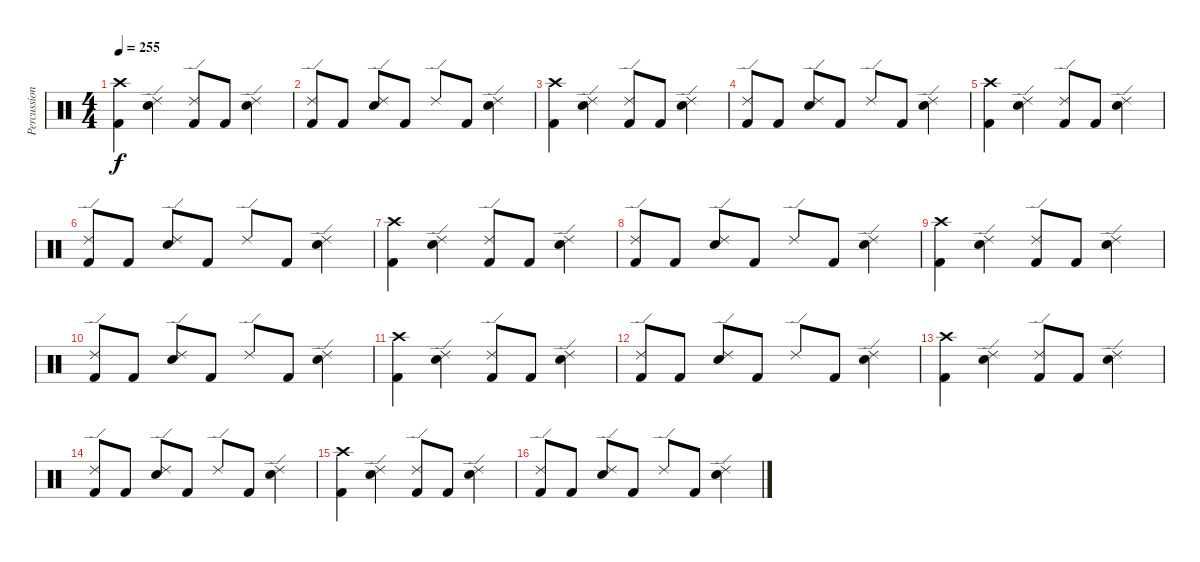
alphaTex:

\track ("Percussion" "Percussion") {instrument percussion}
\staff {score}
\articulation defaults
\ts (4 4)
\tempo 255
\clef neutral
\ks c
("Crash high (hit)" "Kick (hit) 2").4{dy f} ("Ride (edge) 2" "Electric Snare (hit)").4 ("Ride (edge) 2" "Kick (hit) 2").8 "Kick (hit) 2".8 ("Ride (edge) 2" "Electric Snare (hit)").4 |
("Ride (edge) 2" "Kick (hit) 2").8 "Kick (hit) 2".8 ("Ride (edge) 2" "Electric Snare (hit)").8 "Kick (hit) 2".8 "Ride (edge) 2".8 "Kick (hit) 2".8 ("Ride (edge) 2" "Electric Snare (hit)").4 |
("Crash high (hit)" "Kick (hit) 2").4 ("Ride (edge) 2" "Electric Snare (hit)").4 ("Ride (edge) 2" "Kick (hit) 2").8 "Kick (hit) 2".8 ("Ride (edge) 2" "Electric Snare (hit)").4 |
("Ride (edge) 2" "Kick (hit) 2").8 "Kick (hit) 2".8 ("Ride (edge) 2" "Electric Snare (hit)").8 "Kick (hit) 2".8 "Ride (edge) 2".8 "Kick (hit) 2".8 ("Ride (edge) 2" "Electric Snare (hit)").4 |
("Crash high (hit)" "Kick (hit) 2").4 ("Ride (edge) 2" "Electric Snare (hit)").4 ("Ride (edge) 2" "Kick (hit) 2").8 "Kick (hit) 2".8 ("Ride (edge) 2" "Electric Snare (hit)").4 |
("Ride (edge) 2" "Kick (hit) 2").8 "Kick (hit) 2".8 ("Ride (edge) 2" "Electric Snare (hit)").8 "Kick (hit) 2".8 "Ride (edge) 2".8 "Kick (hit) 2".8 ("Ride (edge) 2" "Electric Snare (hit)").4 |
("Crash high (hit)" "Kick (hit) 2").4 ("Ride (edge) 2" "Electric Snare (hit)").4 ("Ride (edge) 2" "Kick (hit) 2").8 "Kick (hit) 2".8 ("Ride (edge) 2" "Electric Snare (hit)").4 |
("Ride (edge) 2" "Kick (hit) 2").8 "Kick (hit) 2".8 ("Ride (edge) 2" "Electric Snare (hit)").8 "Kick (hit) 2".8 "Ride (edge) 2".8 "Kick (hit) 2".8 ("Ride (edge) 2" "Electric Snare (hit)").4 |
("Crash high (hit)" "Kick (hit) 2").4 ("Ride (edge) 2" "Electric Snare (hit)").4 ("Ride (edge) 2" "Kick (hit) 2").8 "Kick (hit) 2".8 ("Ride (edge) 2" "Electric Snare (hit)").4 |
("Ride (edge) 2" "Kick (hit) 2").8 "Kick (hit) 2".8 ("Ride (edge) 2" "Electric Snare (hit)").8 "Kick (hit) 2".8 "Ride (edge) 2".8 "Kick (hit) 2".8 ("Ride (edge) 2" "Electric Snare (hit)").4 |
("Crash high (hit)" "Kick (hit) 2").4 ("Ride (edge) 2" "Electric Snare (hit)").4 ("Ride (edge) 2" "Kick (hit) 2").8 "Kick (hit) 2".8 ("Ride (edge) 2" "Electric Snare (hit)").4 |
("Ride (edge) 2" "Kick (hit) 2").8 "Kick (hit) 2".8 ("Ride (edge) 2" "Electric Snare (hit)").8 "Kick (hit) 2".8 "Ride (edge) 2".8 "Kick (hit) 2".8 ("Ride (edge) 2" "Electric Snare (hit)").4 |
("Crash high (hit)" "Kick (hit) 2").4 ("Ride (edge) 2" "Electric Snare (hit)").4 ("Ride (edge) 2" "Kick (hit) 2").8 "Kick (hit) 2".8 ("Ride (edge) 2" "Electric Snare (hit)").4 |
("Ride (edge) 2" "Kick (hit) 2").8 "Kick (hit) 2".8 ("Ride (edge) 2" "Electric Snare (hit)").8 "Kick (hit) 2".8 "Ride (edge) 2".8 "Kick (hit) 2".8 ("Ride (edge) 2" "Electric Snare (hit)").4 |
("Crash high (hit)" "Kick (hit) 2").4 ("Ride (edge) 2" "Electric Snare (hit)").4 ("Ride (edge) 2" "Kick (hit) 2").8 "Kick (hit) 2".8 ("Ride (edge) 2" "Electric Snare (hit)").4 |
("Ride (edge) 2" "Kick (hit) 2").8 "Kick (hit) 2".8 ("Ride (edge) 2" "Electric Snare (hit)").8 "Kick (hit) 2".8 "Ride (edge) 2".8 "Kick (hit) 2".8 ("Ride (edge) 2" "Electric Snare (hit)").4
